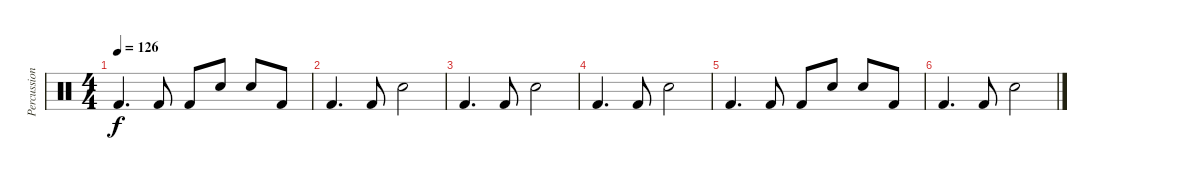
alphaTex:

\track ("Percussioni" "Percussion") {instrument percussion}
\staff {score}
\articulation defaults
\ts (4 4)
\tempo 126
\clef neutral
\ks c "Kick (hit) 2".4{d dy f} "Kick (hit) 2".8 "Kick (hit) 2".8 "Snare (hit) 2".8 "Snare (hit) 2".8 "Kick (hit) 2".8
|
"Kick (hit) 2".4{d} "Kick (hit) 2".8 "Snare (hit) 2".2 |
"Kick (hit) 2".4{d} "Kick (hit) 2".8 "Snare (hit) 2".2 |
"Kick (hit) 2".4{d} "Kick (hit) 2".8 "Snare (hit) 2".2 |
"Kick (hit) 2".4{d} "Kick (hit) 2".8 "Kick (hit) 2".8 "Snare (hit) 2".8 "Snare (hit) 2".8 "Kick (hit) 2".8 |
"Kick (hit) 2".4{d} "Kick (hit) 2".8 "Snare (hit) 2".2
